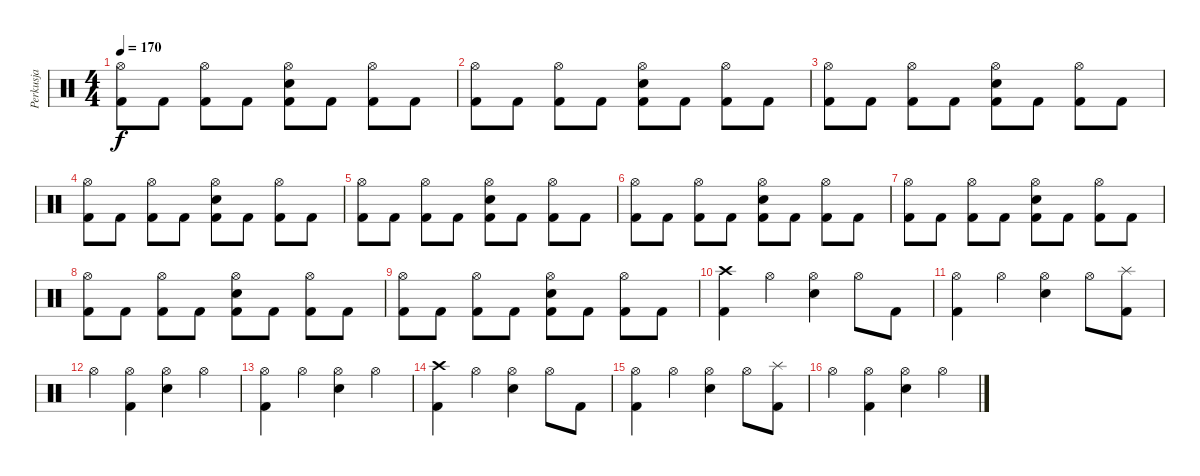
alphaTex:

\track ("Perkusja" "Perkusja") {instrument percussion}
\staff {score}
\articulation defaults
\ts (4 4)
\tempo 170
\clef neutral
\ks c
("Hi-Hat (open)" "Kick (hit) 2").8{dy f} "Kick (hit) 2".8 ("Hi-Hat (open)" "Kick (hit) 2").8 "Kick (hit) 2".8 ("Hi-Hat (open)" "Electric Snare (hit)" "Kick (hit) 2").8 "Kick (hit) 2".8 ("Hi-Hat (open)" "Kick (hit) 2").8 "Kick (hit) 2".8 |
("Hi-Hat (open)" "Kick (hit) 2").8 "Kick (hit) 2".8 ("Hi-Hat (open)" "Kick (hit) 2").8 "Kick (hit) 2".8 ("Hi-Hat (open)" "Electric Snare (hit)" "Kick (hit) 2").8 "Kick (hit) 2".8 ("Hi-Hat (open)" "Kick (hit) 2").8 "Kick (hit) 2".8 |
("Hi-Hat (open)" "Kick (hit) 2").8 "Kick (hit) 2".8 ("Hi-Hat (open)" "Kick (hit) 2").8 "Kick (hit) 2".8 ("Hi-Hat (open)" "Electric Snare (hit)" "Kick (hit) 2").8 "Kick (hit) 2".8 ("Hi-Hat (open)" "Kick (hit) 2").8 "Kick (hit) 2".8 |
("Hi-Hat (open)" "Kick (hit) 2").8 "Kick (hit) 2".8 ("Hi-Hat (open)" "Kick (hit) 2").8 "Kick (hit) 2".8 ("Hi-Hat (open)" "Electric Snare (hit)" "Kick (hit) 2").8 "Kick (hit) 2".8 ("Hi-Hat (open)" "Kick (hit) 2").8 "Kick (hit) 2".8 |
("Hi-Hat (open)" "Kick (hit) 2").8 "Kick (hit) 2".8 ("Hi-Hat (open)" "Kick (hit) 2").8 "Kick (hit) 2".8 ("Hi-Hat (open)" "Electric Snare (hit)" "Kick (hit) 2").8 "Kick (hit) 2".8 ("Hi-Hat (open)" "Kick (hit) 2").8 "Kick (hit) 2".8 |
("Hi-Hat (open)" "Kick (hit) 2").8 "Kick (hit) 2".8 ("Hi-Hat (open)" "Kick (hit) 2").8 "Kick (hit) 2".8 ("Hi-Hat (open)" "Electric Snare (hit)" "Kick (hit) 2").8 "Kick (hit) 2".8 ("Hi-Hat (open)" "Kick (hit) 2").8 "Kick (hit) 2".8 |
("Hi-Hat (open)" "Kick (hit) 2").8 "Kick (hit) 2".8 ("Hi-Hat (open)" "Kick (hit) 2").8 "Kick (hit) 2".8 ("Hi-Hat (open)" "Electric Snare (hit)" "Kick (hit) 2").8 "Kick (hit) 2".8 ("Hi-Hat (open)" "Kick (hit) 2").8 "Kick (hit) 2".8 |
("Hi-Hat (open)" "Kick (hit) 2").8 "Kick (hit) 2".8 ("Hi-Hat (open)" "Kick (hit) 2").8 "Kick (hit) 2".8 ("Hi-Hat (open)" "Electric Snare (hit)" "Kick (hit) 2").8 "Kick (hit) 2".8 ("Hi-Hat (open)" "Kick (hit) 2").8 "Kick (hit) 2".8 |
("Hi-Hat (open)" "Kick (hit) 2").8 "Kick (hit) 2".8 ("Hi-Hat (open)" "Kick (hit) 2").8 "Kick (hit) 2".8 ("Hi-Hat (open)" "Electric Snare (hit)" "Kick (hit) 2").8 "Kick (hit) 2".8 ("Hi-Hat (open)" "Kick (hit) 2").8 "Kick (hit) 2".8 |
("Crash high (hit)" "Kick (hit) 2").4 "Hi-Hat (open)".4 ("Hi-Hat (open)" "Electric Snare (hit)").4 "Hi-Hat (open)".8 "Kick (hit) 2".8 |
("Hi-Hat (open)" "Kick (hit) 2").4 "Hi-Hat (open)".4 ("Hi-Hat (open)" "Electric Snare (hit)").4 "Hi-Hat (open)".8 ("Splash (hit)" "Kick (hit) 2").8 |
"Hi-Hat (open)".4 ("Hi-Hat (open)" "Kick (hit) 2").4 ("Hi-Hat (open)" "Electric Snare (hit)").4 "Hi-Hat (open)".4 |
("Hi-Hat (open)" "Kick (hit) 2").4 "Hi-Hat (open)".4 ("Hi-Hat (open)" "Electric Snare (hit)").4 "Hi-Hat (open)".4 |
("Crash high (hit)" "Kick (hit) 2").4 "Hi-Hat (open)".4 ("Hi-Hat (open)" "Electric Snare (hit)").4 "Hi-Hat (open)".8 "Kick (hit) 2".8 |
("Hi-Hat (open)" "Kick (hit) 2").4 "Hi-Hat (open)".4 ("Hi-Hat (open)" "Electric Snare (hit)").4 "Hi-Hat (open)".8 ("Splash (hit)" "Kick (hit) 2").8 |
"Hi-Hat (open)".4 ("Hi-Hat (open)" "Kick (hit) 2").4 ("Hi-Hat (open)" "Electric Snare (hit)").4 "Hi-Hat (open)".4
